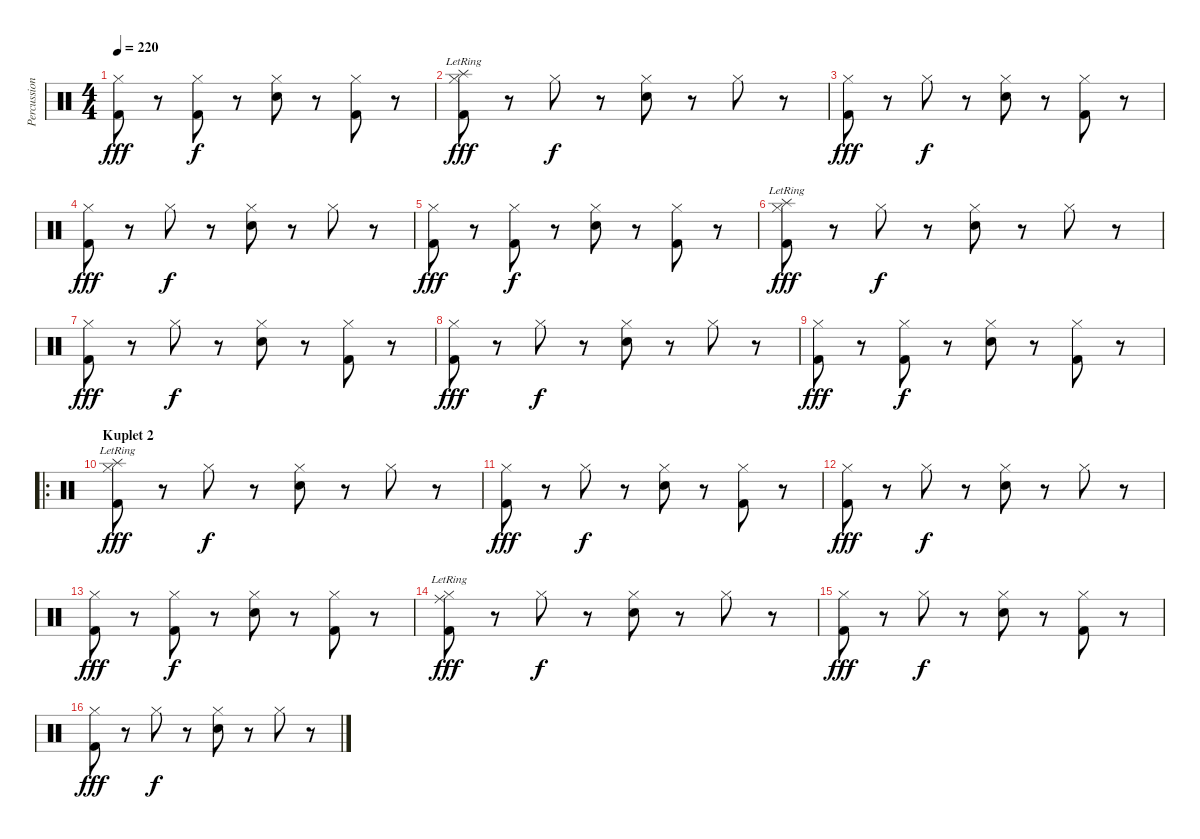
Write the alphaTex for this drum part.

\track ("Percussion" "Percussion") {instrument percussion}
\staff {score}
\articulation defaults
\ts (4 4)
\tempo 220
\clef neutral
\ks c
("Hi-Hat (closed)" "Kick (hit) 2").8{dy fff} r.8 ("Hi-Hat (closed)" "Kick (hit) 2").8{dy f} r.8 ("Hi-Hat (closed)" "Snare (hit) 2").8 r.8 ("Hi-Hat (closed)" "Kick (hit) 2").8 r.8 |
("Hi-Hat (closed)" "Splash (hit)"{lr} "Kick (hit) 2").8{dy fff} r.8 "Hi-Hat (closed)".8{dy f} r.8 ("Hi-Hat (closed)" "Snare (hit) 2").8 r.8 "Hi-Hat (closed)".8 r.8 |
("Hi-Hat (closed)" "Kick (hit) 2").8{dy fff} r.8 "Hi-Hat (closed)".8{dy f} r.8 ("Hi-Hat (closed)" "Snare (hit) 2").8 r.8 ("Hi-Hat (closed)" "Kick (hit) 2").8 r.8 |
("Hi-Hat (closed)" "Kick (hit) 2").8{dy fff} r.8 "Hi-Hat (closed)".8{dy f} r.8 ("Hi-Hat (closed)" "Snare (hit) 2").8 r.8 "Hi-Hat (closed)".8 r.8 |
("Hi-Hat (closed)" "Kick (hit) 2").8{dy fff} r.8 ("Hi-Hat (closed)" "Kick (hit) 2").8{dy f} r.8 ("Hi-Hat (closed)" "Snare (hit) 2").8 r.8 ("Hi-Hat (closed)" "Kick (hit) 2").8 r.8 |
("Hi-Hat (closed)" "Splash (hit)"{lr} "Kick (hit) 2").8{dy fff} r.8 "Hi-Hat (closed)".8{dy f} r.8 ("Hi-Hat (closed)" "Snare (hit) 2").8 r.8 "Hi-Hat (closed)".8 r.8 |
("Hi-Hat (closed)" "Kick (hit) 2").8{dy fff} r.8 "Hi-Hat (closed)".8{dy f} r.8 ("Hi-Hat (closed)" "Snare (hit) 2").8 r.8 ("Hi-Hat (closed)" "Kick (hit) 2").8 r.8 |
("Hi-Hat (closed)" "Kick (hit) 2").8{dy fff} r.8 "Hi-Hat (closed)".8{dy f} r.8 ("Hi-Hat (closed)" "Snare (hit) 2").8 r.8 "Hi-Hat (closed)".8 r.8 |
("Hi-Hat (closed)" "Kick (hit) 2").8{dy fff} r.8 ("Hi-Hat (closed)" "Kick (hit) 2").8{dy f} r.8 ("Hi-Hat (closed)" "Snare (hit) 2").8 r.8 ("Hi-Hat (closed)" "Kick (hit) 2").8 r.8 |
\ro
\section ("" "Kuplet 2")
("Hi-Hat (closed)" "Splash (hit)"{lr} "Kick (hit) 2").8{dy fff} r.8 "Hi-Hat (closed)".8{dy f} r.8 ("Hi-Hat (closed)" "Snare (hit) 2").8 r.8 "Hi-Hat (closed)".8 r.8 |
("Hi-Hat (closed)" "Kick (hit) 2").8{dy fff} r.8 "Hi-Hat (closed)".8{dy f} r.8 ("Hi-Hat (closed)" "Snare (hit) 2").8 r.8 ("Hi-Hat (closed)" "Kick (hit) 2").8 r.8 |
("Hi-Hat (closed)" "Kick (hit) 2").8{dy fff} r.8 "Hi-Hat (closed)".8{dy f} r.8 ("Hi-Hat (closed)" "Snare (hit) 2").8 r.8 "Hi-Hat (closed)".8 r.8 |
("Hi-Hat (closed)" "Kick (hit) 2").8{dy fff} r.8 ("Hi-Hat (closed)" "Kick (hit) 2").8{dy f} r.8 ("Hi-Hat (closed)" "Snare (hit) 2").8 r.8 ("Hi-Hat (closed)" "Kick (hit) 2").8 r.8 |
("Hi-Hat (closed)" "Ride (middle)"{lr} "Kick (hit) 2").8{dy fff} r.8 "Hi-Hat (closed)".8{dy f} r.8 ("Hi-Hat (closed)" "Snare (hit) 2").8 r.8 "Hi-Hat (closed)".8 r.8 |
("Hi-Hat (closed)" "Kick (hit) 2").8{dy fff} r.8 "Hi-Hat (closed)".8{dy f} r.8 ("Hi-Hat (closed)" "Snare (hit) 2").8 r.8 ("Hi-Hat (closed)" "Kick (hit) 2").8 r.8 |
("Hi-Hat (closed)" "Kick (hit) 2").8{dy fff} r.8 "Hi-Hat (closed)".8{dy f} r.8 ("Hi-Hat (closed)" "Snare (hit) 2").8 r.8 "Hi-Hat (closed)".8 r.8
